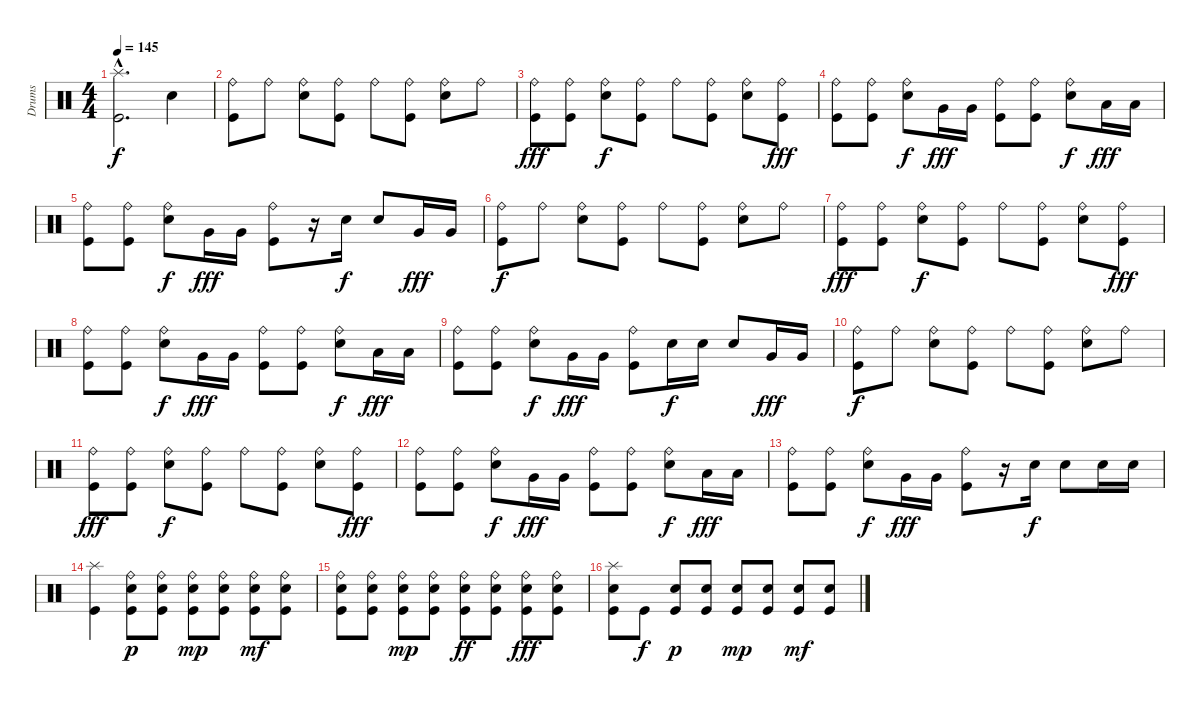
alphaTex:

\track ("Drums" "Drums") {instrument percussion}
\staff {score}
\articulation defaults
\ts (4 4)
\tempo 145
\clef neutral
\ks c
("Splash (hit)"{hac} "Kick (hit)"{hac}).2{d dy f} "Snare (hit) 2".4 |
("Ride (bell)" "Kick (hit)").8 "Ride (bell)".8 ("Ride (bell)" "Snare (hit) 2").8 ("Ride (bell)" "Kick (hit)").8 "Ride (bell)".8 ("Ride (bell)" "Kick (hit)").8 ("Ride (bell)" "Snare (hit) 2").8 "Ride (bell)".8 |
("Ride (bell)" "Kick (hit)").8{dy fff} ("Ride (bell)" "Kick (hit)").8 ("Ride (bell)" "Snare (hit) 2").8{dy f} ("Ride (bell)" "Kick (hit)").8 "Ride (bell)".8 ("Ride (bell)" "Kick (hit)").8 ("Ride (bell)" "Snare (hit) 2").8 ("Ride (bell)" "Kick (hit)").8{dy fff} |
("Ride (bell)" "Kick (hit)").8 ("Ride (bell)" "Kick (hit)").8 ("Ride (bell)" "Snare (hit) 2").8{dy f} "Very Low Tom (hit)".16{dy fff} "Very Low Tom (hit)".16 ("Ride (bell)" "Kick (hit)").8 ("Ride (bell)" "Kick (hit)").8 ("Ride (bell)" "Snare (hit) 2").8{dy f} "Low Tom (hit)".16{dy fff} "Low Tom (hit)".16 |
("Ride (bell)" "Kick (hit)").8 ("Ride (bell)" "Kick (hit)").8 ("Ride (bell)" "Snare (hit) 2").8{dy f} "Very Low Tom (hit)".16{dy fff} "Very Low Tom (hit)".16 ("Ride (bell)" "Kick (hit)").8 r.16 "Snare (hit) 2".16{dy f} "Snare (hit) 2".8 "Very Low Tom (hit)".16{dy fff} "Very Low Tom (hit)".16 |
("Ride (bell)" "Kick (hit)").8{dy f} "Ride (bell)".8 ("Ride (bell)" "Snare (hit) 2").8 ("Ride (bell)" "Kick (hit)").8 "Ride (bell)".8 ("Ride (bell)" "Kick (hit)").8 ("Ride (bell)" "Snare (hit) 2").8 "Ride (bell)".8 |
("Ride (bell)" "Kick (hit)").8{dy fff} ("Ride (bell)" "Kick (hit)").8 ("Ride (bell)" "Snare (hit) 2").8{dy f} ("Ride (bell)" "Kick (hit)").8 "Ride (bell)".8 ("Ride (bell)" "Kick (hit)").8 ("Ride (bell)" "Snare (hit) 2").8 ("Ride (bell)" "Kick (hit)").8{dy fff} |
("Ride (bell)" "Kick (hit)").8 ("Ride (bell)" "Kick (hit)").8 ("Ride (bell)" "Snare (hit) 2").8{dy f} "Very Low Tom (hit)".16{dy fff} "Very Low Tom (hit)".16 ("Ride (bell)" "Kick (hit)").8 ("Ride (bell)" "Kick (hit)").8 ("Ride (bell)" "Snare (hit) 2").8{dy f} "Low Tom (hit)".16{dy fff} "Low Tom (hit)".16 |
("Ride (bell)" "Kick (hit)").8 ("Ride (bell)" "Kick (hit)").8 ("Ride (bell)" "Snare (hit) 2").8{dy f} "Very Low Tom (hit)".16{dy fff} "Very Low Tom (hit)".16 ("Ride (bell)" "Kick (hit)").8 "Snare (hit) 2".16{dy f} "Snare (hit) 2".16 "Snare (hit) 2".8 "Very Low Tom (hit)".16{dy fff} "Very Low Tom (hit)".16 |
("Ride (bell)" "Kick (hit)").8{dy f} "Ride (bell)".8 ("Ride (bell)" "Snare (hit) 2").8 ("Ride (bell)" "Kick (hit)").8 "Ride (bell)".8 ("Ride (bell)" "Kick (hit)").8 ("Ride (bell)" "Snare (hit) 2").8 "Ride (bell)".8 |
("Ride (bell)" "Kick (hit)").8{dy fff} ("Ride (bell)" "Kick (hit)").8 ("Ride (bell)" "Snare (hit) 2").8{dy f} ("Ride (bell)" "Kick (hit)").8 "Ride (bell)".8 ("Ride (bell)" "Kick (hit)").8 ("Ride (bell)" "Snare (hit) 2").8 ("Ride (bell)" "Kick (hit)").8{dy fff} |
("Ride (bell)" "Kick (hit)").8 ("Ride (bell)" "Kick (hit)").8 ("Ride (bell)" "Snare (hit) 2").8{dy f} "Very Low Tom (hit)".16{dy fff} "Very Low Tom (hit)".16 ("Ride (bell)" "Kick (hit)").8 ("Ride (bell)" "Kick (hit)").8 ("Ride (bell)" "Snare (hit) 2").8{dy f} "Low Tom (hit)".16{dy fff} "Low Tom (hit)".16 |
("Ride (bell)" "Kick (hit)").8 ("Ride (bell)" "Kick (hit)").8 ("Ride (bell)" "Snare (hit) 2").8{dy f} "Very Low Tom (hit)".16{dy fff} "Very Low Tom (hit)".16 ("Ride (bell)" "Kick (hit)").8 r.16 "Snare (hit) 2".16{dy f} "Snare (hit) 2".8 "Snare (hit) 2".16 "Snare (hit) 2".16 |
("Splash (hit)" "Kick (hit)").4 ("Ride (bell)" "Snare (hit) 2" "Kick (hit)").8{dy p} ("Ride (bell)" "Snare (hit) 2" "Kick (hit)").8 ("Ride (bell)" "Snare (hit) 2" "Kick (hit)").8{dy mp} ("Ride (bell)" "Snare (hit) 2" "Kick (hit)").8 ("Ride (bell)" "Snare (hit) 2" "Kick (hit)").8{dy mf} ("Ride (bell)" "Snare (hit) 2" "Kick (hit)").8 |
("Ride (bell)" "Snare (hit) 2" "Kick (hit)").8 ("Ride (bell)" "Snare (hit) 2" "Kick (hit)").8 ("Ride (bell)" "Snare (hit) 2" "Kick (hit)").8{dy mp} ("Ride (bell)" "Snare (hit) 2" "Kick (hit)").8 ("Ride (bell)" "Snare (hit) 2" "Kick (hit)").8{dy ff} ("Ride (bell)" "Snare (hit) 2" "Kick (hit)").8 ("Ride (bell)" "Snare (hit) 2" "Kick (hit)").8{dy fff} ("Ride (bell)" "Snare (hit) 2" "Kick (hit)").8 |
("Splash (hit)" "Snare (hit) 2" "Kick (hit)").8 "Kick (hit)".8{dy f} ("Snare (hit) 2" "Kick (hit)").8{dy p} ("Snare (hit) 2" "Kick (hit)").8 ("Snare (hit) 2" "Kick (hit)").8{dy mp} ("Snare (hit) 2" "Kick (hit)").8 ("Snare (hit) 2" "Kick (hit)").8{dy mf} ("Snare (hit) 2" "Kick (hit)").8
